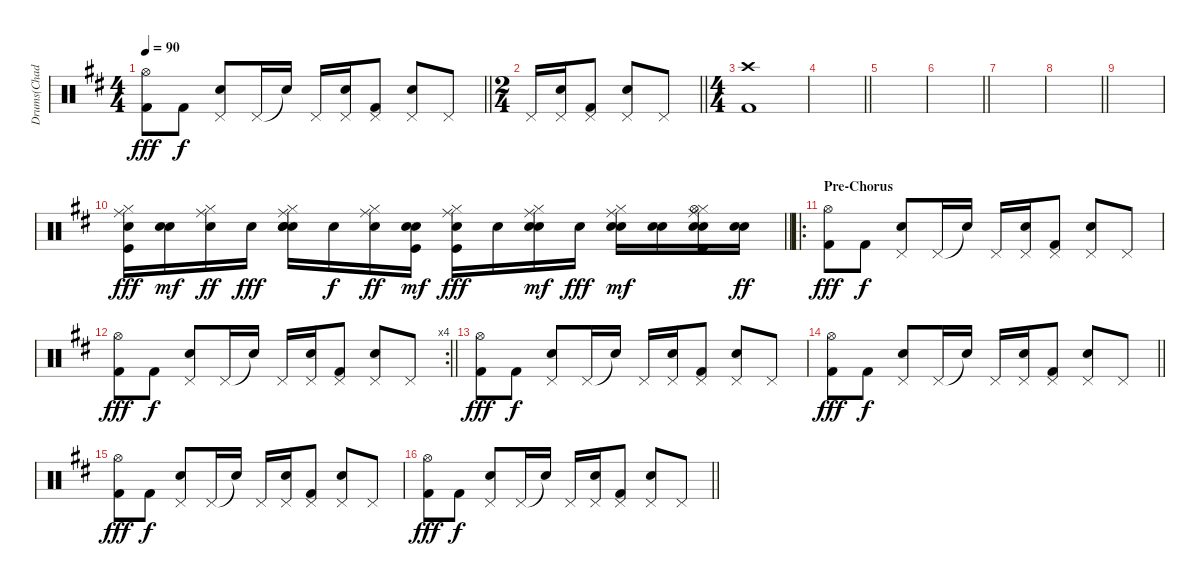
\track ("Drums(Chad Smith)" "Drums(Chad") {instrument percussion}
\staff {score}
\articulation defaults
\ts (4 4)
\tempo 90
\clef neutral
\barLineRight lightlight
\ks d
("Hi-Hat (open)" "Kick (hit) 2").8{dy fff} "Kick (hit) 2".8{dy f} ("Pedal Hi-Hat (hit)" "Snare (hit) 2").8 "Pedal Hi-Hat (hit)".16 "Snare (hit)"{t}.16 "Pedal Hi-Hat (hit)".16 ("Pedal Hi-Hat (hit)" "Snare (hit) 2").16 ("Pedal Hi-Hat (hit)" "Kick (hit) 2").8 ("Pedal Hi-Hat (hit)" "Snare (hit) 2").8 "Pedal Hi-Hat (hit)".8 |
\ts (2 4)
\barLineRight lightlight "Pedal Hi-Hat (hit)".16
("Pedal Hi-Hat (hit)" "Snare (hit) 2").16 ("Pedal Hi-Hat (hit)" "Kick (hit) 2").8 ("Pedal Hi-Hat (hit)" "Snare (hit) 2").8 "Pedal Hi-Hat (hit)".8 |
\ts (4 4)
("Crash high (hit)" "Kick (hit) 2").1 |
\barLineRight lightlight
|
|
\barLineRight lightlight
|
|
\barLineRight lightlight
|
|
\barLineRight lightlight
("Kick (hit)" "Snare (hit) 2" "Hi-Hat (closed)" "Ride (middle)").16{dy fff} ("Snare (hit) 2" "Snare (hit) 2").16{dy mf} ("Snare (hit) 2" "Hi-Hat (closed)" "Ride (middle)").16{dy ff} "Snare (hit) 2".16{dy fff} ("Snare (hit) 2" "Hi-Hat (closed)" "Ride (middle)" "Hand Clap (hit)" "Snare (hit) 2").16 "Snare (hit) 2".16{dy f} ("Snare (hit) 2" "Hi-Hat (closed)" "Ride (middle)").16{dy ff} ("Kick (hit)" "Snare (hit) 2" "Snare (hit) 2").16{dy mf} ("Kick (hit)" "Snare (hit) 2" "Hi-Hat (closed)" "Ride (middle)").16{dy fff} "Snare (hit) 2".16 ("Snare (hit) 2" "Hi-Hat (closed)" "Ride (middle)" "Snare (hit) 2").16{dy mf} "Snare (hit) 2".16{dy fff} ("Snare (hit) 2" "Hi-Hat (closed)" "Ride (middle)" "Snare (hit) 2").16{dy mf} ("Snare (hit) 2" "Snare (hit) 2").16 ("Kick (hit)" "Snare (hit) 2" "Hi-Hat (closed)" "Hi-Hat (open)" "Ride (middle)" "Snare (hit) 2").16 ("Snare (hit) 2" "Snare (hit) 2").16{dy ff} |
\ro
\section ("" "Pre-Chorus")
("Hi-Hat (open)" "Kick (hit) 2").8{dy fff} "Kick (hit) 2".8{dy f} ("Pedal Hi-Hat (hit)" "Snare (hit) 2").8 "Pedal Hi-Hat (hit)".16 "Snare (hit)"{t}.16 "Pedal Hi-Hat (hit)".16 ("Pedal Hi-Hat (hit)" "Snare (hit) 2").16 ("Pedal Hi-Hat (hit)" "Kick (hit) 2").8 ("Pedal Hi-Hat (hit)" "Snare (hit) 2").8 "Pedal Hi-Hat (hit)".8 |
\rc 4
\barLineRight lightlight
("Hi-Hat (open)" "Kick (hit) 2").8{dy fff} "Kick (hit) 2".8{dy f} ("Pedal Hi-Hat (hit)" "Snare (hit) 2").8 "Pedal Hi-Hat (hit)".16 "Snare (hit)"{t}.16 "Pedal Hi-Hat (hit)".16 ("Pedal Hi-Hat (hit)" "Snare (hit) 2").16 ("Pedal Hi-Hat (hit)" "Kick (hit) 2").8 ("Pedal Hi-Hat (hit)" "Snare (hit) 2").8 "Pedal Hi-Hat (hit)".8 |
("Hi-Hat (open)" "Kick (hit) 2").8{dy fff} "Kick (hit) 2".8{dy f} ("Pedal Hi-Hat (hit)" "Snare (hit) 2").8 "Pedal Hi-Hat (hit)".16 "Snare (hit)"{t}.16 "Pedal Hi-Hat (hit)".16 ("Pedal Hi-Hat (hit)" "Snare (hit) 2").16 ("Pedal Hi-Hat (hit)" "Kick (hit) 2").8 ("Pedal Hi-Hat (hit)" "Snare (hit) 2").8 "Pedal Hi-Hat (hit)".8 |
\barLineRight lightlight
("Hi-Hat (open)" "Kick (hit) 2").8{dy fff} "Kick (hit) 2".8{dy f} ("Pedal Hi-Hat (hit)" "Snare (hit) 2").8 "Pedal Hi-Hat (hit)".16 "Snare (hit)"{t}.16 "Pedal Hi-Hat (hit)".16 ("Pedal Hi-Hat (hit)" "Snare (hit) 2").16 ("Pedal Hi-Hat (hit)" "Kick (hit) 2").8 ("Pedal Hi-Hat (hit)" "Snare (hit) 2").8 "Pedal Hi-Hat (hit)".8 |
("Hi-Hat (open)" "Kick (hit) 2").8{dy fff} "Kick (hit) 2".8{dy f} ("Pedal Hi-Hat (hit)" "Snare (hit) 2").8 "Pedal Hi-Hat (hit)".16 "Snare (hit)"{t}.16 "Pedal Hi-Hat (hit)".16 ("Pedal Hi-Hat (hit)" "Snare (hit) 2").16 ("Pedal Hi-Hat (hit)" "Kick (hit) 2").8 ("Pedal Hi-Hat (hit)" "Snare (hit) 2").8 "Pedal Hi-Hat (hit)".8 |
\barLineRight lightlight
("Hi-Hat (open)" "Kick (hit) 2").8{dy fff} "Kick (hit) 2".8{dy f} ("Pedal Hi-Hat (hit)" "Snare (hit) 2").8 "Pedal Hi-Hat (hit)".16 "Snare (hit)"{t}.16 "Pedal Hi-Hat (hit)".16 ("Pedal Hi-Hat (hit)" "Snare (hit) 2").16 ("Pedal Hi-Hat (hit)" "Kick (hit) 2").8 ("Pedal Hi-Hat (hit)" "Snare (hit) 2").8 "Pedal Hi-Hat (hit)".8
